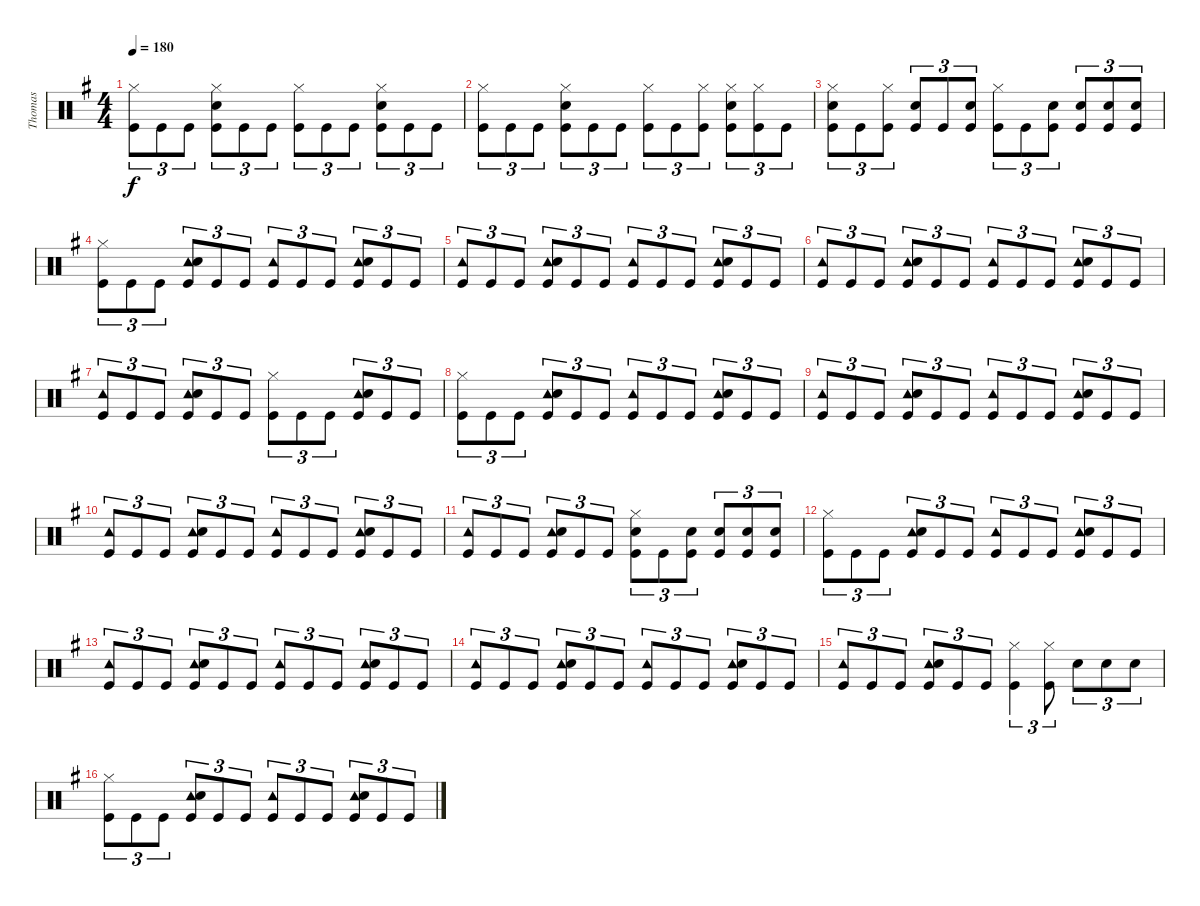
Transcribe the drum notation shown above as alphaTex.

\track ("Thomas" "Thomas") {instrument percussion}
\staff {score}
\articulation defaults
\ts (4 4)
\tempo 180
\clef neutral
\ks g
("Hi-Hat (closed)" "Kick (hit)").8{tu (3 2) dy f} "Kick (hit)".8{tu (3 2)} "Kick (hit)".8{tu (3 2)} ("Hi-Hat (closed)" "Snare (hit) 2" "Kick (hit)").8{tu (3 2)} "Kick (hit)".8{tu (3 2)} "Kick (hit)".8{tu (3 2)} ("Hi-Hat (closed)" "Kick (hit)").8{tu (3 2)} "Kick (hit)".8{tu (3 2)} "Kick (hit)".8{tu (3 2)} ("Hi-Hat (closed)" "Snare (hit) 2" "Kick (hit)").8{tu (3 2)} "Kick (hit)".8{tu (3 2)} "Kick (hit)".8{tu (3 2)} |
("Hi-Hat (closed)" "Kick (hit)").8{tu (3 2)} "Kick (hit)".8{tu (3 2)} "Kick (hit)".8{tu (3 2)} ("Hi-Hat (closed)" "Snare (hit) 2" "Kick (hit)").8{tu (3 2)} "Kick (hit)".8{tu (3 2)} "Kick (hit)".8{tu (3 2)} ("Hi-Hat (closed)" "Kick (hit)").8{tu (3 2)} "Kick (hit)".8{tu (3 2)} ("Hi-Hat (closed)" "Kick (hit)").8{tu (3 2)} ("Hi-Hat (closed)" "Snare (hit) 2" "Kick (hit)").8{tu (3 2)} ("Hi-Hat (closed)" "Kick (hit)").8{tu (3 2)} "Kick (hit)".8{tu (3 2)} |
("Hi-Hat (closed)" "Snare (hit) 2" "Kick (hit)").8{tu (3 2)} "Kick (hit)".8{tu (3 2)} ("Hi-Hat (closed)" "Kick (hit)").8{tu (3 2)} ("Snare (hit) 2" "Kick (hit)").8{tu (3 2)} "Kick (hit)".8{tu (3 2)} ("Snare (hit) 2" "Kick (hit)").8{tu (3 2)} ("Hi-Hat (closed)" "Kick (hit)").8{tu (3 2)} "Kick (hit)".8{tu (3 2)} ("Snare (hit) 2" "Kick (hit)").8{tu (3 2)} ("Snare (hit) 2" "Kick (hit)").8{tu (3 2)} ("Snare (hit) 2" "Kick (hit)").8{tu (3 2)} ("Snare (hit) 2" "Kick (hit)").8{tu (3 2)} |
("Hi-Hat (closed)" "Kick (hit)").8{tu (3 2)} "Kick (hit)".8{tu (3 2)} "Kick (hit)".8{tu (3 2)} ("Tambourine (hit)" "Snare (hit) 2" "Kick (hit)").8{tu (3 2)} "Kick (hit)".8{tu (3 2)} "Kick (hit)".8{tu (3 2)} ("Tambourine (hit)" "Kick (hit)").8{tu (3 2)} "Kick (hit)".8{tu (3 2)} "Kick (hit)".8{tu (3 2)} ("Tambourine (hit)" "Snare (hit) 2" "Kick (hit)").8{tu (3 2)} "Kick (hit)".8{tu (3 2)} "Kick (hit)".8{tu (3 2)} |
("Tambourine (hit)" "Kick (hit)").8{tu (3 2)} "Kick (hit)".8{tu (3 2)} "Kick (hit)".8{tu (3 2)} ("Tambourine (hit)" "Snare (hit) 2" "Kick (hit)").8{tu (3 2)} "Kick (hit)".8{tu (3 2)} "Kick (hit)".8{tu (3 2)} ("Tambourine (hit)" "Kick (hit)").8{tu (3 2)} "Kick (hit)".8{tu (3 2)} "Kick (hit)".8{tu (3 2)} ("Tambourine (hit)" "Snare (hit) 2" "Kick (hit)").8{tu (3 2)} "Kick (hit)".8{tu (3 2)} "Kick (hit)".8{tu (3 2)} |
("Tambourine (hit)" "Kick (hit)").8{tu (3 2)} "Kick (hit)".8{tu (3 2)} "Kick (hit)".8{tu (3 2)} ("Tambourine (hit)" "Snare (hit) 2" "Kick (hit)").8{tu (3 2)} "Kick (hit)".8{tu (3 2)} "Kick (hit)".8{tu (3 2)} ("Tambourine (hit)" "Kick (hit)").8{tu (3 2)} "Kick (hit)".8{tu (3 2)} "Kick (hit)".8{tu (3 2)} ("Tambourine (hit)" "Snare (hit) 2" "Kick (hit)").8{tu (3 2)} "Kick (hit)".8{tu (3 2)} "Kick (hit)".8{tu (3 2)} |
("Tambourine (hit)" "Kick (hit)").8{tu (3 2)} "Kick (hit)".8{tu (3 2)} "Kick (hit)".8{tu (3 2)} ("Tambourine (hit)" "Snare (hit) 2" "Kick (hit)").8{tu (3 2)} "Kick (hit)".8{tu (3 2)} "Kick (hit)".8{tu (3 2)} ("Hi-Hat (closed)" "Kick (hit)").8{tu (3 2)} "Kick (hit)".8{tu (3 2)} "Kick (hit)".8{tu (3 2)} ("Tambourine (hit)" "Snare (hit) 2" "Kick (hit)").8{tu (3 2)} "Kick (hit)".8{tu (3 2)} "Kick (hit)".8{tu (3 2)} |
("Hi-Hat (closed)" "Kick (hit)").8{tu (3 2)} "Kick (hit)".8{tu (3 2)} "Kick (hit)".8{tu (3 2)} ("Tambourine (hit)" "Snare (hit) 2" "Kick (hit)").8{tu (3 2)} "Kick (hit)".8{tu (3 2)} "Kick (hit)".8{tu (3 2)} ("Tambourine (hit)" "Kick (hit)").8{tu (3 2)} "Kick (hit)".8{tu (3 2)} "Kick (hit)".8{tu (3 2)} ("Tambourine (hit)" "Snare (hit) 2" "Kick (hit)").8{tu (3 2)} "Kick (hit)".8{tu (3 2)} "Kick (hit)".8{tu (3 2)} |
("Tambourine (hit)" "Kick (hit)").8{tu (3 2)} "Kick (hit)".8{tu (3 2)} "Kick (hit)".8{tu (3 2)} ("Tambourine (hit)" "Snare (hit) 2" "Kick (hit)").8{tu (3 2)} "Kick (hit)".8{tu (3 2)} "Kick (hit)".8{tu (3 2)} ("Tambourine (hit)" "Kick (hit)").8{tu (3 2)} "Kick (hit)".8{tu (3 2)} "Kick (hit)".8{tu (3 2)} ("Tambourine (hit)" "Snare (hit) 2" "Kick (hit)").8{tu (3 2)} "Kick (hit)".8{tu (3 2)} "Kick (hit)".8{tu (3 2)} |
("Tambourine (hit)" "Kick (hit)").8{tu (3 2)} "Kick (hit)".8{tu (3 2)} "Kick (hit)".8{tu (3 2)} ("Tambourine (hit)" "Snare (hit) 2" "Kick (hit)").8{tu (3 2)} "Kick (hit)".8{tu (3 2)} "Kick (hit)".8{tu (3 2)} ("Tambourine (hit)" "Kick (hit)").8{tu (3 2)} "Kick (hit)".8{tu (3 2)} "Kick (hit)".8{tu (3 2)} ("Tambourine (hit)" "Snare (hit) 2" "Kick (hit)").8{tu (3 2)} "Kick (hit)".8{tu (3 2)} "Kick (hit)".8{tu (3 2)} |
("Tambourine (hit)" "Kick (hit)").8{tu (3 2)} "Kick (hit)".8{tu (3 2)} "Kick (hit)".8{tu (3 2)} ("Tambourine (hit)" "Snare (hit) 2" "Kick (hit)").8{tu (3 2)} "Kick (hit)".8{tu (3 2)} "Kick (hit)".8{tu (3 2)} ("Hi-Hat (closed)" "Snare (hit) 2" "Kick (hit)").8{tu (3 2)} "Kick (hit)".8{tu (3 2)} ("Snare (hit) 2" "Kick (hit)").8{tu (3 2)} ("Snare (hit) 2" "Kick (hit)").8{tu (3 2)} ("Snare (hit) 2" "Kick (hit)").8{tu (3 2)} ("Snare (hit) 2" "Kick (hit)").8{tu (3 2)} |
("Hi-Hat (closed)" "Kick (hit)").8{tu (3 2)} "Kick (hit)".8{tu (3 2)} "Kick (hit)".8{tu (3 2)} ("Tambourine (hit)" "Snare (hit) 2" "Kick (hit)").8{tu (3 2)} "Kick (hit)".8{tu (3 2)} "Kick (hit)".8{tu (3 2)} ("Tambourine (hit)" "Kick (hit)").8{tu (3 2)} "Kick (hit)".8{tu (3 2)} "Kick (hit)".8{tu (3 2)} ("Tambourine (hit)" "Snare (hit) 2" "Kick (hit)").8{tu (3 2)} "Kick (hit)".8{tu (3 2)} "Kick (hit)".8{tu (3 2)} |
("Tambourine (hit)" "Kick (hit)").8{tu (3 2)} "Kick (hit)".8{tu (3 2)} "Kick (hit)".8{tu (3 2)} ("Tambourine (hit)" "Snare (hit) 2" "Kick (hit)").8{tu (3 2)} "Kick (hit)".8{tu (3 2)} "Kick (hit)".8{tu (3 2)} ("Tambourine (hit)" "Kick (hit)").8{tu (3 2)} "Kick (hit)".8{tu (3 2)} "Kick (hit)".8{tu (3 2)} ("Tambourine (hit)" "Snare (hit) 2" "Kick (hit)").8{tu (3 2)} "Kick (hit)".8{tu (3 2)} "Kick (hit)".8{tu (3 2)} |
("Tambourine (hit)" "Kick (hit)").8{tu (3 2)} "Kick (hit)".8{tu (3 2)} "Kick (hit)".8{tu (3 2)} ("Tambourine (hit)" "Snare (hit) 2" "Kick (hit)").8{tu (3 2)} "Kick (hit)".8{tu (3 2)} "Kick (hit)".8{tu (3 2)} ("Tambourine (hit)" "Kick (hit)").8{tu (3 2)} "Kick (hit)".8{tu (3 2)} "Kick (hit)".8{tu (3 2)} ("Tambourine (hit)" "Snare (hit) 2" "Kick (hit)").8{tu (3 2)} "Kick (hit)".8{tu (3 2)} "Kick (hit)".8{tu (3 2)} |
("Tambourine (hit)" "Kick (hit)").8{tu (3 2)} "Kick (hit)".8{tu (3 2)} "Kick (hit)".8{tu (3 2)} ("Tambourine (hit)" "Snare (hit) 2" "Kick (hit)").8{tu (3 2)} "Kick (hit)".8{tu (3 2)} "Kick (hit)".8{tu (3 2)} ("Hi-Hat (closed)" "Kick (hit)").4{tu (3 2)} ("Hi-Hat (closed)" "Kick (hit)").8{tu (3 2)} "Snare (hit) 2".8{tu (3 2)} "Snare (hit) 2".8{tu (3 2)} "Snare (hit) 2".8{tu (3 2)} |
("Hi-Hat (closed)" "Kick (hit)").8{tu (3 2)} "Kick (hit)".8{tu (3 2)} "Kick (hit)".8{tu (3 2)} ("Tambourine (hit)" "Snare (hit) 2" "Kick (hit)").8{tu (3 2)} "Kick (hit)".8{tu (3 2)} "Kick (hit)".8{tu (3 2)} ("Tambourine (hit)" "Kick (hit)").8{tu (3 2)} "Kick (hit)".8{tu (3 2)} "Kick (hit)".8{tu (3 2)} ("Tambourine (hit)" "Snare (hit) 2" "Kick (hit)").8{tu (3 2)} "Kick (hit)".8{tu (3 2)} "Kick (hit)".8{tu (3 2)}
